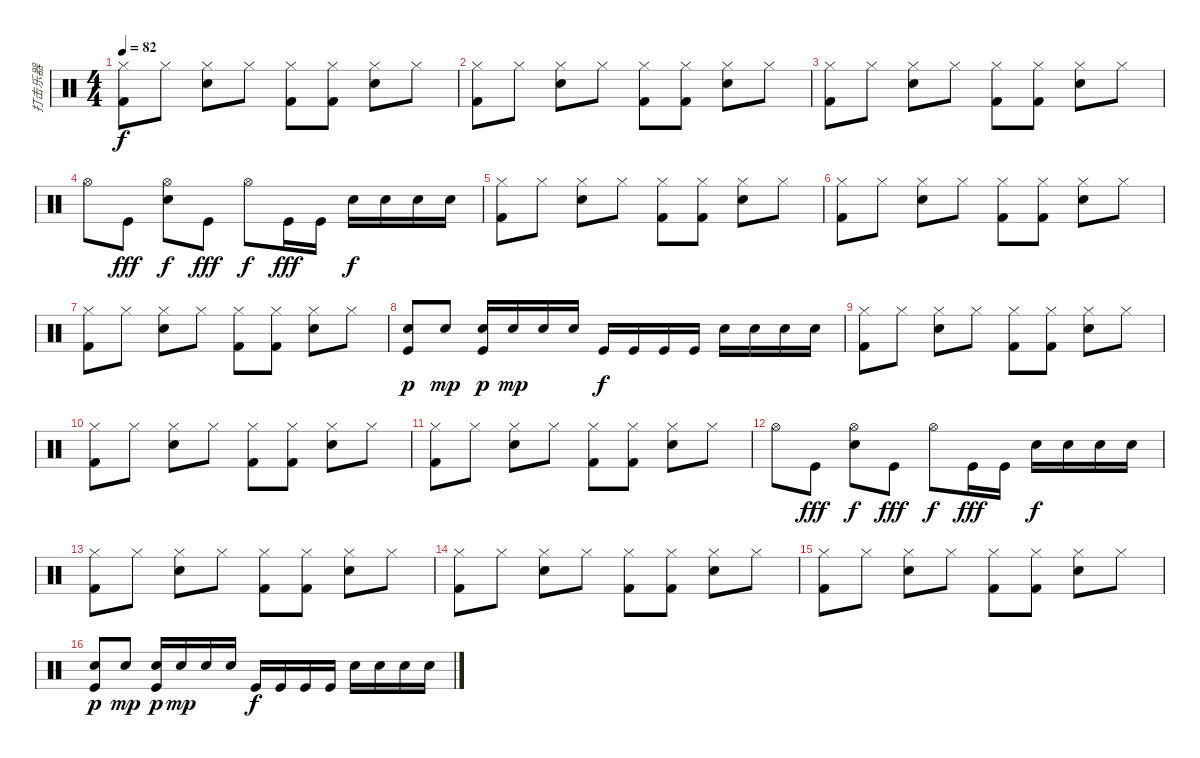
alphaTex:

\track ("打击乐器" "打击乐器") {instrument percussion}
\staff {score}
\articulation defaults
\ts (4 4)
\tempo 82
\clef neutral
\ks c
("Kick (hit) 2" "Hi-Hat (closed)").8{dy f} "Hi-Hat (closed)".8 ("Snare (hit) 2" "Hi-Hat (closed)").8 "Hi-Hat (closed)".8 ("Kick (hit) 2" "Hi-Hat (closed)").8 ("Kick (hit) 2" "Hi-Hat (closed)").8 ("Snare (hit) 2" "Hi-Hat (closed)").8 "Hi-Hat (closed)".8 |
("Kick (hit) 2" "Hi-Hat (closed)").8 "Hi-Hat (closed)".8 ("Snare (hit) 2" "Hi-Hat (closed)").8 "Hi-Hat (closed)".8 ("Kick (hit) 2" "Hi-Hat (closed)").8 ("Kick (hit) 2" "Hi-Hat (closed)").8 ("Snare (hit) 2" "Hi-Hat (closed)").8 "Hi-Hat (closed)".8 |
("Kick (hit) 2" "Hi-Hat (closed)").8 "Hi-Hat (closed)".8 ("Snare (hit) 2" "Hi-Hat (closed)").8 "Hi-Hat (closed)".8 ("Kick (hit) 2" "Hi-Hat (closed)").8 ("Kick (hit) 2" "Hi-Hat (closed)").8 ("Snare (hit) 2" "Hi-Hat (closed)").8 "Hi-Hat (closed)".8 |
"Hi-Hat (open)".8 "Kick (hit)".8{dy fff} ("Electric Snare (hit)" "Hi-Hat (open)").8{dy f} "Kick (hit)".8{dy fff} "Hi-Hat (open)".8{dy f} "Kick (hit)".16{dy fff} "Kick (hit)".16 "Electric Snare (hit)".16{dy f} "Electric Snare (hit)".16 "Electric Snare (hit)".16 "Electric Snare (hit)".16 |
("Kick (hit) 2" "Hi-Hat (closed)").8 "Hi-Hat (closed)".8 ("Snare (hit) 2" "Hi-Hat (closed)").8 "Hi-Hat (closed)".8 ("Kick (hit) 2" "Hi-Hat (closed)").8 ("Kick (hit) 2" "Hi-Hat (closed)").8 ("Snare (hit) 2" "Hi-Hat (closed)").8 "Hi-Hat (closed)".8 |
("Kick (hit) 2" "Hi-Hat (closed)").8 "Hi-Hat (closed)".8 ("Snare (hit) 2" "Hi-Hat (closed)").8 "Hi-Hat (closed)".8 ("Kick (hit) 2" "Hi-Hat (closed)").8 ("Kick (hit) 2" "Hi-Hat (closed)").8 ("Snare (hit) 2" "Hi-Hat (closed)").8 "Hi-Hat (closed)".8 |
("Kick (hit) 2" "Hi-Hat (closed)").8 "Hi-Hat (closed)".8 ("Snare (hit) 2" "Hi-Hat (closed)").8 "Hi-Hat (closed)".8 ("Kick (hit) 2" "Hi-Hat (closed)").8 ("Kick (hit) 2" "Hi-Hat (closed)").8 ("Snare (hit) 2" "Hi-Hat (closed)").8 "Hi-Hat (closed)".8 |
("Electric Snare (hit)" "Kick (hit)").8{dy p} "Electric Snare (hit)".8{dy mp} ("Electric Snare (hit)" "Kick (hit)").16{dy p} "Electric Snare (hit)".16{dy mp} "Electric Snare (hit)".16 "Electric Snare (hit)".16 "Kick (hit)".16{dy f} "Kick (hit)".16 "Kick (hit)".16 "Kick (hit)".16 "Electric Snare (hit)".16 "Electric Snare (hit)".16 "Electric Snare (hit)".16 "Electric Snare (hit)".16 |
("Kick (hit) 2" "Hi-Hat (closed)").8 "Hi-Hat (closed)".8 ("Snare (hit) 2" "Hi-Hat (closed)").8 "Hi-Hat (closed)".8 ("Kick (hit) 2" "Hi-Hat (closed)").8 ("Kick (hit) 2" "Hi-Hat (closed)").8 ("Snare (hit) 2" "Hi-Hat (closed)").8 "Hi-Hat (closed)".8 |
("Kick (hit) 2" "Hi-Hat (closed)").8 "Hi-Hat (closed)".8 ("Snare (hit) 2" "Hi-Hat (closed)").8 "Hi-Hat (closed)".8 ("Kick (hit) 2" "Hi-Hat (closed)").8 ("Kick (hit) 2" "Hi-Hat (closed)").8 ("Snare (hit) 2" "Hi-Hat (closed)").8 "Hi-Hat (closed)".8 |
("Kick (hit) 2" "Hi-Hat (closed)").8 "Hi-Hat (closed)".8 ("Snare (hit) 2" "Hi-Hat (closed)").8 "Hi-Hat (closed)".8 ("Kick (hit) 2" "Hi-Hat (closed)").8 ("Kick (hit) 2" "Hi-Hat (closed)").8 ("Snare (hit) 2" "Hi-Hat (closed)").8 "Hi-Hat (closed)".8 |
"Hi-Hat (open)".8 "Kick (hit)".8{dy fff} ("Electric Snare (hit)" "Hi-Hat (open)").8{dy f} "Kick (hit)".8{dy fff} "Hi-Hat (open)".8{dy f} "Kick (hit)".16{dy fff} "Kick (hit)".16 "Electric Snare (hit)".16{dy f} "Electric Snare (hit)".16 "Electric Snare (hit)".16 "Electric Snare (hit)".16 |
("Kick (hit) 2" "Hi-Hat (closed)").8 "Hi-Hat (closed)".8 ("Snare (hit) 2" "Hi-Hat (closed)").8 "Hi-Hat (closed)".8 ("Kick (hit) 2" "Hi-Hat (closed)").8 ("Kick (hit) 2" "Hi-Hat (closed)").8 ("Snare (hit) 2" "Hi-Hat (closed)").8 "Hi-Hat (closed)".8 |
("Kick (hit) 2" "Hi-Hat (closed)").8 "Hi-Hat (closed)".8 ("Snare (hit) 2" "Hi-Hat (closed)").8 "Hi-Hat (closed)".8 ("Kick (hit) 2" "Hi-Hat (closed)").8 ("Kick (hit) 2" "Hi-Hat (closed)").8 ("Snare (hit) 2" "Hi-Hat (closed)").8 "Hi-Hat (closed)".8 |
("Kick (hit) 2" "Hi-Hat (closed)").8 "Hi-Hat (closed)".8 ("Snare (hit) 2" "Hi-Hat (closed)").8 "Hi-Hat (closed)".8 ("Kick (hit) 2" "Hi-Hat (closed)").8 ("Kick (hit) 2" "Hi-Hat (closed)").8 ("Snare (hit) 2" "Hi-Hat (closed)").8 "Hi-Hat (closed)".8 |
("Electric Snare (hit)" "Kick (hit)").8{dy p} "Electric Snare (hit)".8{dy mp} ("Electric Snare (hit)" "Kick (hit)").16{dy p} "Electric Snare (hit)".16{dy mp} "Electric Snare (hit)".16 "Electric Snare (hit)".16 "Kick (hit)".16{dy f} "Kick (hit)".16 "Kick (hit)".16 "Kick (hit)".16 "Electric Snare (hit)".16 "Electric Snare (hit)".16 "Electric Snare (hit)".16 "Electric Snare (hit)".16
